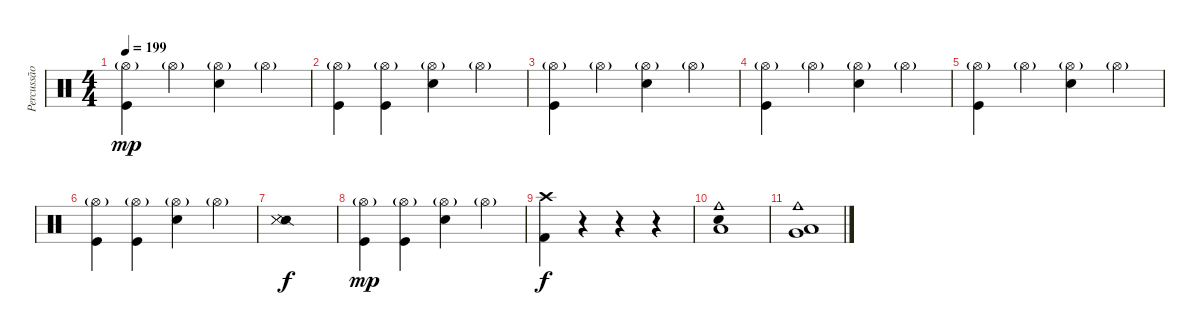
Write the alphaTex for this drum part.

\track ("Percussão" "Percussão") {instrument percussion}
\staff {score}
\articulation defaults
\ts (4 4)
\tempo 199
\clef neutral
\ks c
("Hi-Hat (open)"{g} "Kick (hit)").4{dy mp} "Hi-Hat (open)"{g}.4 ("Hi-Hat (open)"{g} "Electric Snare (hit)").4 "Hi-Hat (open)"{g}.4 |
("Hi-Hat (open)"{g} "Kick (hit)").4 ("Hi-Hat (open)"{g} "Kick (hit)").4 ("Hi-Hat (open)"{g} "Electric Snare (hit)").4 "Hi-Hat (open)"{g}.4 |
("Hi-Hat (open)"{g} "Kick (hit)").4 "Hi-Hat (open)"{g}.4 ("Hi-Hat (open)"{g} "Electric Snare (hit)").4 "Hi-Hat (open)"{g}.4 |
("Hi-Hat (open)"{g} "Kick (hit)").4 "Hi-Hat (open)"{g}.4 ("Hi-Hat (open)"{g} "Electric Snare (hit)").4 "Hi-Hat (open)"{g}.4 |
("Hi-Hat (open)"{g} "Kick (hit)").4 "Hi-Hat (open)"{g}.4 ("Hi-Hat (open)"{g} "Electric Snare (hit)").4 "Hi-Hat (open)"{g}.4 |
("Hi-Hat (open)"{g} "Kick (hit)").4 ("Hi-Hat (open)"{g} "Kick (hit)").4 ("Hi-Hat (open)"{g} "Electric Snare (hit)").4 "Hi-Hat (open)"{g}.4 |
("Snare (side stick) 2" "Metronome (hit)" "Metronome (hit)").1{dy f} |
("Hi-Hat (open)"{g} "Kick (hit)").4{dy mp} ("Hi-Hat (open)"{g} "Kick (hit)").4 ("Hi-Hat (open)"{g} "Electric Snare (hit)").4 "Hi-Hat (open)"{g}.4 |
("Crash high (hit)" "Kick (hit) 2").4{dy f} r.4 r.4 r.4 |
("Low Tom (hit)" "Cowbell medium (hit)" "Metronome (bell)").1 |
("Low Tom (hit)" "Cowbell medium (hit)" "Very Low Tom (hit)").1
